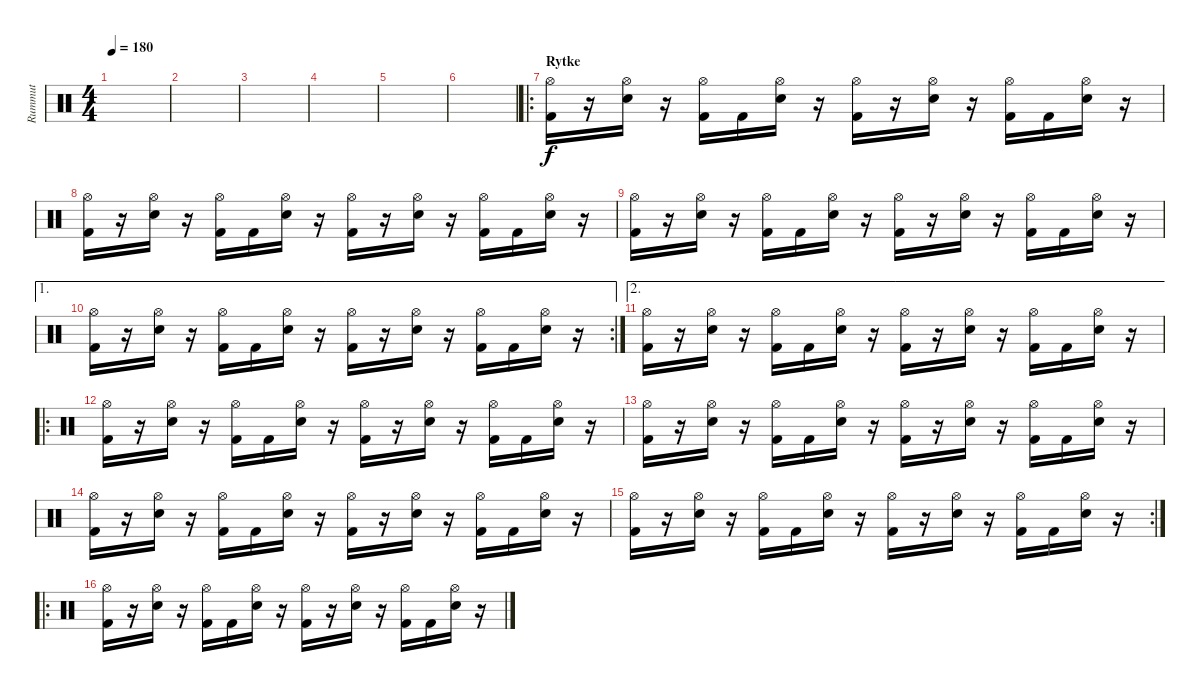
\track ("Rummut" "Rummut") {instrument percussion}
\staff {score}
\articulation defaults
\ts (4 4)
\tempo 180
\clef neutral
\ks c
|
|
|
|
|
|
\ro
\section ("" "Rytke")
("Kick (hit) 2" "Hi-Hat (open)").16 r.16 ("Snare (hit) 2" "Hi-Hat (open)").16 r.16 ("Kick (hit) 2" "Hi-Hat (open)").16 "Kick (hit) 2".16 ("Snare (hit) 2" "Hi-Hat (open)").16 r.16 ("Kick (hit) 2" "Hi-Hat (open)").16 r.16 ("Snare (hit) 2" "Hi-Hat (open)").16 r.16 ("Kick (hit) 2" "Hi-Hat (open)").16 "Kick (hit) 2".16 ("Snare (hit) 2" "Hi-Hat (open)").16 r.16 |
("Kick (hit) 2" "Hi-Hat (open)").16 r.16 ("Snare (hit) 2" "Hi-Hat (open)").16 r.16 ("Kick (hit) 2" "Hi-Hat (open)").16 "Kick (hit) 2".16 ("Snare (hit) 2" "Hi-Hat (open)").16 r.16 ("Kick (hit) 2" "Hi-Hat (open)").16 r.16 ("Snare (hit) 2" "Hi-Hat (open)").16 r.16 ("Kick (hit) 2" "Hi-Hat (open)").16 "Kick (hit) 2".16 ("Snare (hit) 2" "Hi-Hat (open)").16 r.16 |
("Kick (hit) 2" "Hi-Hat (open)").16 r.16 ("Snare (hit) 2" "Hi-Hat (open)").16 r.16 ("Kick (hit) 2" "Hi-Hat (open)").16 "Kick (hit) 2".16 ("Snare (hit) 2" "Hi-Hat (open)").16 r.16 ("Kick (hit) 2" "Hi-Hat (open)").16 r.16 ("Snare (hit) 2" "Hi-Hat (open)").16 r.16 ("Kick (hit) 2" "Hi-Hat (open)").16 "Kick (hit) 2".16 ("Snare (hit) 2" "Hi-Hat (open)").16 r.16 |
\ae 1
\rc 2
("Kick (hit) 2" "Hi-Hat (open)").16 r.16 ("Snare (hit) 2" "Hi-Hat (open)").16 r.16 ("Kick (hit) 2" "Hi-Hat (open)").16 "Kick (hit) 2".16 ("Snare (hit) 2" "Hi-Hat (open)").16 r.16 ("Kick (hit) 2" "Hi-Hat (open)").16 r.16 ("Snare (hit) 2" "Hi-Hat (open)").16 r.16 ("Kick (hit) 2" "Hi-Hat (open)").16 "Kick (hit) 2".16 ("Snare (hit) 2" "Hi-Hat (open)").16 r.16 |
\ae 2
("Kick (hit) 2" "Hi-Hat (open)").16 r.16 ("Snare (hit) 2" "Hi-Hat (open)").16 r.16 ("Kick (hit) 2" "Hi-Hat (open)").16 "Kick (hit) 2".16 ("Snare (hit) 2" "Hi-Hat (open)").16 r.16 ("Kick (hit) 2" "Hi-Hat (open)").16 r.16 ("Snare (hit) 2" "Hi-Hat (open)").16 r.16 ("Kick (hit) 2" "Hi-Hat (open)").16 "Kick (hit) 2".16 ("Snare (hit) 2" "Hi-Hat (open)").16 r.16 |
\ro
("Kick (hit) 2" "Hi-Hat (open)").16 r.16 ("Snare (hit) 2" "Hi-Hat (open)").16 r.16 ("Kick (hit) 2" "Hi-Hat (open)").16 "Kick (hit) 2".16 ("Snare (hit) 2" "Hi-Hat (open)").16 r.16 ("Kick (hit) 2" "Hi-Hat (open)").16 r.16 ("Snare (hit) 2" "Hi-Hat (open)").16 r.16 ("Kick (hit) 2" "Hi-Hat (open)").16 "Kick (hit) 2".16 ("Snare (hit) 2" "Hi-Hat (open)").16 r.16 |
("Kick (hit) 2" "Hi-Hat (open)").16 r.16 ("Snare (hit) 2" "Hi-Hat (open)").16 r.16 ("Kick (hit) 2" "Hi-Hat (open)").16 "Kick (hit) 2".16 ("Snare (hit) 2" "Hi-Hat (open)").16 r.16 ("Kick (hit) 2" "Hi-Hat (open)").16 r.16 ("Snare (hit) 2" "Hi-Hat (open)").16 r.16 ("Kick (hit) 2" "Hi-Hat (open)").16 "Kick (hit) 2".16 ("Snare (hit) 2" "Hi-Hat (open)").16 r.16 |
("Kick (hit) 2" "Hi-Hat (open)").16 r.16 ("Snare (hit) 2" "Hi-Hat (open)").16 r.16 ("Kick (hit) 2" "Hi-Hat (open)").16 "Kick (hit) 2".16 ("Snare (hit) 2" "Hi-Hat (open)").16 r.16 ("Kick (hit) 2" "Hi-Hat (open)").16 r.16 ("Snare (hit) 2" "Hi-Hat (open)").16 r.16 ("Kick (hit) 2" "Hi-Hat (open)").16 "Kick (hit) 2".16 ("Snare (hit) 2" "Hi-Hat (open)").16 r.16 |
\rc 2
("Kick (hit) 2" "Hi-Hat (open)").16 r.16 ("Snare (hit) 2" "Hi-Hat (open)").16 r.16 ("Kick (hit) 2" "Hi-Hat (open)").16 "Kick (hit) 2".16 ("Snare (hit) 2" "Hi-Hat (open)").16 r.16 ("Kick (hit) 2" "Hi-Hat (open)").16 r.16 ("Snare (hit) 2" "Hi-Hat (open)").16 r.16 ("Kick (hit) 2" "Hi-Hat (open)").16 "Kick (hit) 2".16 ("Snare (hit) 2" "Hi-Hat (open)").16 r.16 |
\ro
("Kick (hit) 2" "Hi-Hat (open)").16 r.16 ("Snare (hit) 2" "Hi-Hat (open)").16 r.16 ("Kick (hit) 2" "Hi-Hat (open)").16 "Kick (hit) 2".16 ("Snare (hit) 2" "Hi-Hat (open)").16 r.16 ("Kick (hit) 2" "Hi-Hat (open)").16 r.16 ("Snare (hit) 2" "Hi-Hat (open)").16 r.16 ("Kick (hit) 2" "Hi-Hat (open)").16 "Kick (hit) 2".16 ("Snare (hit) 2" "Hi-Hat (open)").16 r.16
